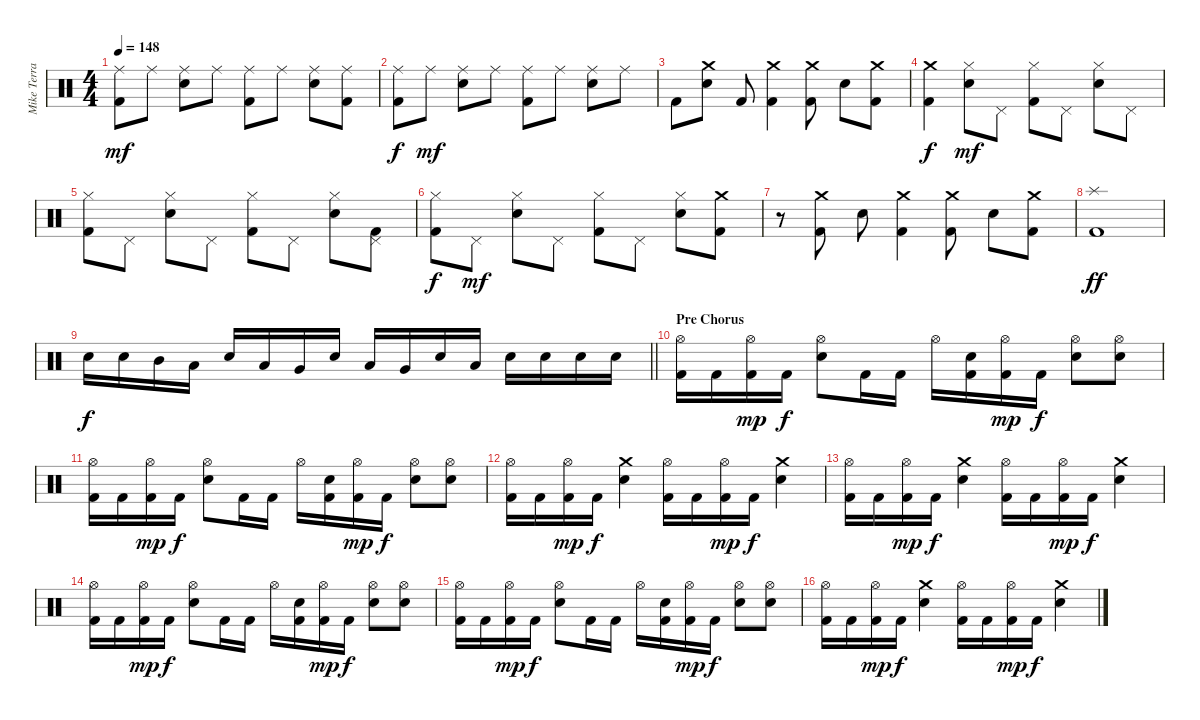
\track ("Mike Terrana" "Mike Terra") {instrument percussion}
\staff {score}
\articulation defaults
\ts (4 4)
\tempo 148
\clef neutral
\ks c
("Ride (middle)" "Kick (hit) 2").8{dy mf} "Ride (middle)".8 ("Ride (middle)" "Snare (hit) 2").8 "Ride (middle)".8 ("Ride (middle)" "Kick (hit) 2").8 "Ride (middle)".8 ("Ride (middle)" "Snare (hit) 2").8 ("Ride (middle)" "Kick (hit) 2").8 |
("Ride (middle)" "Kick (hit) 2").8{dy f} "Ride (middle)".8{dy mf} ("Ride (middle)" "Snare (hit) 2").8 "Ride (middle)".8 ("Ride (middle)" "Kick (hit) 2").8 "Ride (middle)".8 ("Ride (middle)" "Snare (hit) 2").8 "Ride (middle)".8 |
"Kick (hit) 2".8 ("Crash medium (hit)" "Snare (hit) 2").8 "Kick (hit) 2".8 ("Crash medium (hit)" "Kick (hit) 2").4 ("Crash medium (hit)" "Kick (hit) 2").8 "Snare (hit) 2".8 ("Crash medium (hit)" "Kick (hit) 2").8 |
("Crash medium (hit)" "Kick (hit) 2").4{dy f} ("Hi-Hat (closed)" "Snare (hit) 2").8{dy mf} "Pedal Hi-Hat (hit)".8 ("Hi-Hat (closed)" "Kick (hit) 2").8 "Pedal Hi-Hat (hit)".8 ("Hi-Hat (closed)" "Snare (hit) 2").8 "Pedal Hi-Hat (hit)".8 |
("Hi-Hat (closed)" "Kick (hit) 2").8 "Pedal Hi-Hat (hit)".8 ("Hi-Hat (closed)" "Snare (hit) 2").8 "Pedal Hi-Hat (hit)".8 ("Hi-Hat (closed)" "Kick (hit) 2").8 "Pedal Hi-Hat (hit)".8 ("Hi-Hat (closed)" "Snare (hit) 2").8 ("Pedal Hi-Hat (hit)" "Kick (hit) 2").8 |
("Hi-Hat (closed)" "Kick (hit) 2").8{dy f} "Pedal Hi-Hat (hit)".8{dy mf} ("Hi-Hat (closed)" "Snare (hit) 2").8 "Pedal Hi-Hat (hit)".8 ("Hi-Hat (closed)" "Kick (hit) 2").8 "Pedal Hi-Hat (hit)".8 ("Hi-Hat (closed)" "Snare (hit) 2").8 ("Crash medium (hit)" "Kick (hit) 2").8 |
r.8 ("Crash medium (hit)" "Kick (hit) 2").8 "Snare (hit) 2".8 ("Crash medium (hit)" "Kick (hit) 2").4 ("Crash medium (hit)" "Kick (hit) 2").8 "Snare (hit) 2".8 ("Crash medium (hit)" "Kick (hit) 2").8 |
("Splash (hit)" "Kick (hit) 2").1{dy ff} |
\barLineRight lightlight "Snare (hit) 2".16{dy f} "Snare (hit) 2".16 "Mid Tom (hit)".16 "Low Tom (hit)".16 "Snare (hit) 2".16 "Low Tom (hit)".16 "Very Low Tom (hit)".16 "Snare (hit) 2".16 "Low Tom (hit)".16 "Very Low Tom (hit)".16 "Snare (hit) 2".16 "Low Tom (hit)".16 "Snare (hit) 2".16 "Snare (hit) 2".16 "Snare (hit) 2".16 "Snare (hit) 2".16
|
\section ("" "Pre Chorus")
("Hi-Hat (open)" "Kick (hit) 2").16 "Kick (hit) 2".16 ("Hi-Hat (open)" "Kick (hit) 2").16{dy mp} "Kick (hit) 2".16{dy f} ("Hi-Hat (open)" "Snare (hit) 2").8 "Kick (hit) 2".16 "Kick (hit) 2".16 "Hi-Hat (open)".16 ("Snare (hit) 2" "Kick (hit) 2").16 ("Hi-Hat (open)" "Kick (hit) 2").16{dy mp} "Kick (hit) 2".16{dy f} ("Hi-Hat (open)" "Snare (hit) 2").8 ("Hi-Hat (open)" "Snare (hit) 2").8 |
("Hi-Hat (open)" "Kick (hit) 2").16 "Kick (hit) 2".16 ("Hi-Hat (open)" "Kick (hit) 2").16{dy mp} "Kick (hit) 2".16{dy f} ("Hi-Hat (open)" "Snare (hit) 2").8 "Kick (hit) 2".16 "Kick (hit) 2".16 "Hi-Hat (open)".16 ("Snare (hit) 2" "Kick (hit) 2").16 ("Hi-Hat (open)" "Kick (hit) 2").16{dy mp} "Kick (hit) 2".16{dy f} ("Hi-Hat (open)" "Snare (hit) 2").8 ("Hi-Hat (open)" "Snare (hit) 2").8 |
("Hi-Hat (open)" "Kick (hit) 2").16 "Kick (hit) 2".16 ("Hi-Hat (open)" "Kick (hit) 2").16{dy mp} "Kick (hit) 2".16{dy f} ("Crash medium (hit)" "Snare (hit) 2").4 ("Hi-Hat (open)" "Kick (hit) 2").16 "Kick (hit) 2".16 ("Hi-Hat (open)" "Kick (hit) 2").16{dy mp} "Kick (hit) 2".16{dy f} ("Crash medium (hit)" "Snare (hit) 2").4 |
("Hi-Hat (open)" "Kick (hit) 2").16 "Kick (hit) 2".16 ("Hi-Hat (open)" "Kick (hit) 2").16{dy mp} "Kick (hit) 2".16{dy f} ("Crash medium (hit)" "Snare (hit) 2").4 ("Hi-Hat (open)" "Kick (hit) 2").16 "Kick (hit) 2".16 ("Hi-Hat (open)" "Kick (hit) 2").16{dy mp} "Kick (hit) 2".16{dy f} ("Crash medium (hit)" "Snare (hit) 2").4 |
("Hi-Hat (open)" "Kick (hit) 2").16 "Kick (hit) 2".16 ("Hi-Hat (open)" "Kick (hit) 2").16{dy mp} "Kick (hit) 2".16{dy f} ("Hi-Hat (open)" "Snare (hit) 2").8 "Kick (hit) 2".16 "Kick (hit) 2".16 "Hi-Hat (open)".16 ("Snare (hit) 2" "Kick (hit) 2").16 ("Hi-Hat (open)" "Kick (hit) 2").16{dy mp} "Kick (hit) 2".16{dy f} ("Hi-Hat (open)" "Snare (hit) 2").8 ("Hi-Hat (open)" "Snare (hit) 2").8 |
("Hi-Hat (open)" "Kick (hit) 2").16 "Kick (hit) 2".16 ("Hi-Hat (open)" "Kick (hit) 2").16{dy mp} "Kick (hit) 2".16{dy f} ("Hi-Hat (open)" "Snare (hit) 2").8 "Kick (hit) 2".16 "Kick (hit) 2".16 "Hi-Hat (open)".16 ("Snare (hit) 2" "Kick (hit) 2").16 ("Hi-Hat (open)" "Kick (hit) 2").16{dy mp} "Kick (hit) 2".16{dy f} ("Hi-Hat (open)" "Snare (hit) 2").8 ("Hi-Hat (open)" "Snare (hit) 2").8 |
("Hi-Hat (open)" "Kick (hit) 2").16 "Kick (hit) 2".16 ("Hi-Hat (open)" "Kick (hit) 2").16{dy mp} "Kick (hit) 2".16{dy f} ("Crash medium (hit)" "Snare (hit) 2").4 ("Hi-Hat (open)" "Kick (hit) 2").16 "Kick (hit) 2".16 ("Hi-Hat (open)" "Kick (hit) 2").16{dy mp} "Kick (hit) 2".16{dy f} ("Crash medium (hit)" "Snare (hit) 2").4
